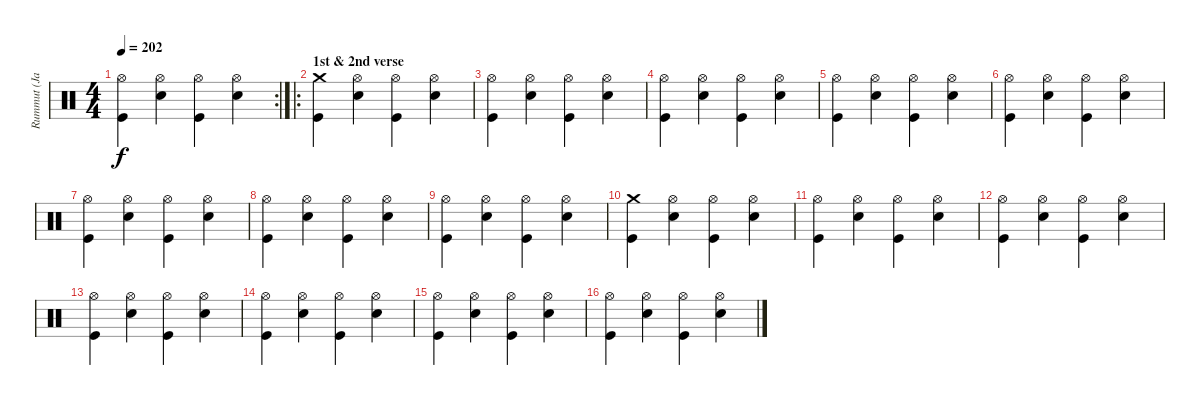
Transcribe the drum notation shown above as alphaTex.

\track ("Rummut (Janne)" "Rummut (Ja") {instrument percussion}
\staff {score}
\articulation defaults
\rc 2
\ts (4 4)
\tempo 202
\clef neutral
\ks c
("Hi-Hat (open)" "Kick (hit)").4{dy f} ("Hi-Hat (open)" "Snare (hit) 2").4 ("Hi-Hat (open)" "Kick (hit)").4 ("Hi-Hat (open)" "Snare (hit) 2").4 |
\ro
\section ("" "1st & 2nd verse")
("Crash medium (hit)" "Kick (hit)").4 ("Hi-Hat (open)" "Snare (hit) 2").4 ("Hi-Hat (open)" "Kick (hit)").4 ("Hi-Hat (open)" "Snare (hit) 2").4 |
("Hi-Hat (open)" "Kick (hit)").4 ("Hi-Hat (open)" "Snare (hit) 2").4 ("Hi-Hat (open)" "Kick (hit)").4 ("Hi-Hat (open)" "Snare (hit) 2").4 |
("Hi-Hat (open)" "Kick (hit)").4 ("Hi-Hat (open)" "Snare (hit) 2").4 ("Hi-Hat (open)" "Kick (hit)").4 ("Hi-Hat (open)" "Snare (hit) 2").4 |
("Hi-Hat (open)" "Kick (hit)").4 ("Hi-Hat (open)" "Snare (hit) 2").4 ("Hi-Hat (open)" "Kick (hit)").4 ("Hi-Hat (open)" "Snare (hit) 2").4 |
("Hi-Hat (open)" "Kick (hit)").4 ("Hi-Hat (open)" "Snare (hit) 2").4 ("Hi-Hat (open)" "Kick (hit)").4 ("Hi-Hat (open)" "Snare (hit) 2").4 |
("Hi-Hat (open)" "Kick (hit)").4 ("Hi-Hat (open)" "Snare (hit) 2").4 ("Hi-Hat (open)" "Kick (hit)").4 ("Hi-Hat (open)" "Snare (hit) 2").4 |
("Hi-Hat (open)" "Kick (hit)").4 ("Hi-Hat (open)" "Snare (hit) 2").4 ("Hi-Hat (open)" "Kick (hit)").4 ("Hi-Hat (open)" "Snare (hit) 2").4 |
("Hi-Hat (open)" "Kick (hit)").4 ("Hi-Hat (open)" "Snare (hit) 2").4 ("Hi-Hat (open)" "Kick (hit)").4 ("Hi-Hat (open)" "Snare (hit) 2").4 |
("Crash medium (hit)" "Kick (hit)").4 ("Hi-Hat (open)" "Snare (hit) 2").4 ("Hi-Hat (open)" "Kick (hit)").4 ("Hi-Hat (open)" "Snare (hit) 2").4 |
("Hi-Hat (open)" "Kick (hit)").4 ("Hi-Hat (open)" "Snare (hit) 2").4 ("Hi-Hat (open)" "Kick (hit)").4 ("Hi-Hat (open)" "Snare (hit) 2").4 |
("Hi-Hat (open)" "Kick (hit)").4 ("Hi-Hat (open)" "Snare (hit) 2").4 ("Hi-Hat (open)" "Kick (hit)").4 ("Hi-Hat (open)" "Snare (hit) 2").4 |
("Hi-Hat (open)" "Kick (hit)").4 ("Hi-Hat (open)" "Snare (hit) 2").4 ("Hi-Hat (open)" "Kick (hit)").4 ("Hi-Hat (open)" "Snare (hit) 2").4 |
("Hi-Hat (open)" "Kick (hit)").4 ("Hi-Hat (open)" "Snare (hit) 2").4 ("Hi-Hat (open)" "Kick (hit)").4 ("Hi-Hat (open)" "Snare (hit) 2").4 |
("Hi-Hat (open)" "Kick (hit)").4 ("Hi-Hat (open)" "Snare (hit) 2").4 ("Hi-Hat (open)" "Kick (hit)").4 ("Hi-Hat (open)" "Snare (hit) 2").4 |
("Hi-Hat (open)" "Kick (hit)").4 ("Hi-Hat (open)" "Snare (hit) 2").4 ("Hi-Hat (open)" "Kick (hit)").4 ("Hi-Hat (open)" "Snare (hit) 2").4
